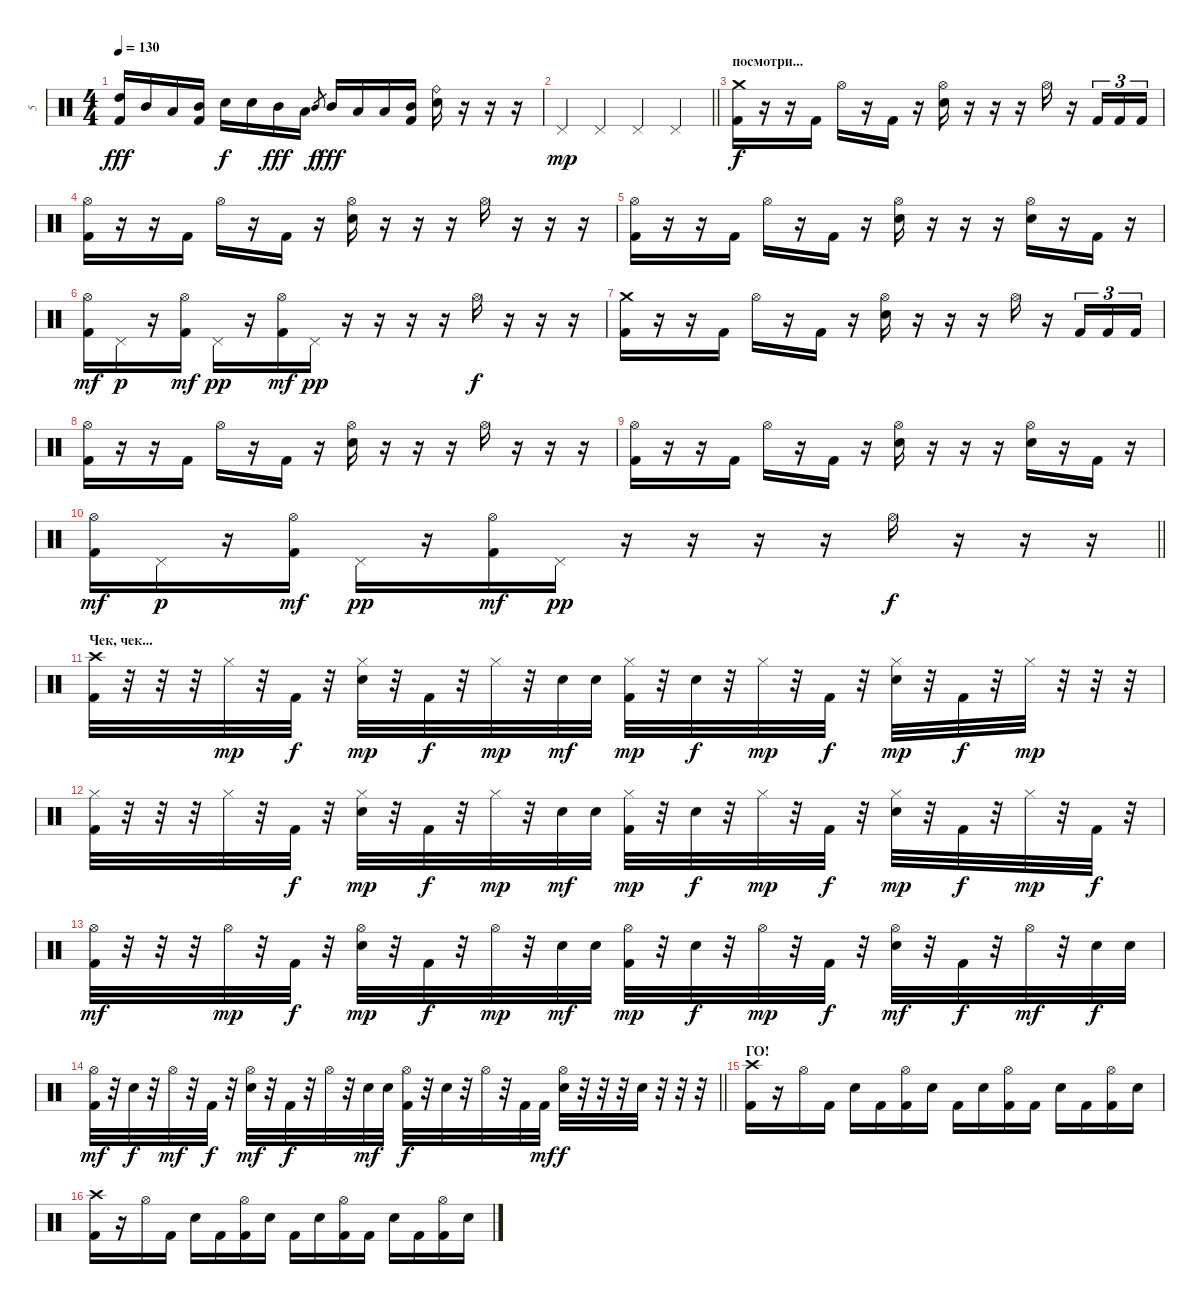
\track ("5" "5") {instrument percussion}
\staff {score}
\articulation defaults
\ts (4 4)
\tempo 130
\clef neutral
\ks c
("High Tom (hit)" "Kick (hit) 2").16{dy fff} "Mid Tom (hit)".16 "Low Tom (hit)".16 ("Mid Tom (hit)" "Kick (hit) 2").16 "Electric Snare (hit)".16{dy f} "Electric Snare (hit)".16 "Mid Tom (hit)".16{dy fff} "Low Tom (hit)".16 "Mid Tom (hit)".8{gr dy f} "Mid Tom (hit)".16{dy fff} "Low Tom (hit)".16 "Low Tom (hit)".16 ("Mid Tom (hit)" "Kick (hit) 2").16 ("Ride (bell)" "Electric Snare (hit)").16 r.16 r.16 r.16 |
\barLineRight lightlight "Pedal Hi-Hat (hit)".4{dy mp} "Pedal Hi-Hat (hit)".4 "Pedal Hi-Hat (hit)".4 "Pedal Hi-Hat (hit)".4
|
\section ("" "посмотри...")
("Crash medium (hit)" "Kick (hit) 2").16{dy f} r.16 r.16 "Kick (hit) 2".16 "Hi-Hat (open)".16 r.16 "Kick (hit) 2".16 r.16 ("Hi-Hat (open)" "Electric Snare (hit)").16 r.16 r.16 r.16 "Hi-Hat (open)".16 r.16 "Kick (hit) 2".16{tu (3 2)} "Kick (hit) 2".16{tu (3 2)} "Kick (hit) 2".16{tu (3 2)} |
("Hi-Hat (open)" "Kick (hit) 2").16 r.16 r.16 "Kick (hit) 2".16 "Hi-Hat (open)".16 r.16 "Kick (hit) 2".16 r.16 ("Hi-Hat (open)" "Electric Snare (hit)").16 r.16 r.16 r.16 "Hi-Hat (open)".16 r.16 r.16 r.16 |
("Hi-Hat (open)" "Kick (hit) 2").16 r.16 r.16 "Kick (hit) 2".16 "Hi-Hat (open)".16 r.16 "Kick (hit) 2".16 r.16 ("Hi-Hat (open)" "Electric Snare (hit)").16 r.16 r.16 r.16 ("Hi-Hat (open)" "Electric Snare (hit)").16 r.16 "Kick (hit) 2".16 r.16 |
("Hi-Hat (open)" "Kick (hit) 2").16{dy mf} "Pedal Hi-Hat (hit)".16{dy p} r.16 ("Hi-Hat (open)" "Kick (hit) 2").16{dy mf} "Pedal Hi-Hat (hit)".16{dy pp} r.16 ("Hi-Hat (open)" "Kick (hit) 2").16{dy mf} "Pedal Hi-Hat (hit)".16{dy pp} r.16 r.16 r.16 r.16 "Hi-Hat (open)".16{dy f} r.16 r.16 r.16 |
("Crash medium (hit)" "Kick (hit) 2").16 r.16 r.16 "Kick (hit) 2".16 "Hi-Hat (open)".16 r.16 "Kick (hit) 2".16 r.16 ("Hi-Hat (open)" "Electric Snare (hit)").16 r.16 r.16 r.16 "Hi-Hat (open)".16 r.16 "Kick (hit) 2".16{tu (3 2)} "Kick (hit) 2".16{tu (3 2)} "Kick (hit) 2".16{tu (3 2)} |
("Hi-Hat (open)" "Kick (hit) 2").16 r.16 r.16 "Kick (hit) 2".16 "Hi-Hat (open)".16 r.16 "Kick (hit) 2".16 r.16 ("Hi-Hat (open)" "Electric Snare (hit)").16 r.16 r.16 r.16 "Hi-Hat (open)".16 r.16 r.16 r.16 |
("Hi-Hat (open)" "Kick (hit) 2").16 r.16 r.16 "Kick (hit) 2".16 "Hi-Hat (open)".16 r.16 "Kick (hit) 2".16 r.16 ("Hi-Hat (open)" "Electric Snare (hit)").16 r.16 r.16 r.16 ("Hi-Hat (open)" "Electric Snare (hit)").16 r.16 "Kick (hit) 2".16 r.16 |
\barLineRight lightlight
("Hi-Hat (open)" "Kick (hit) 2").16{dy mf} "Pedal Hi-Hat (hit)".16{dy p} r.16 ("Hi-Hat (open)" "Kick (hit) 2").16{dy mf} "Pedal Hi-Hat (hit)".16{dy pp} r.16 ("Hi-Hat (open)" "Kick (hit) 2").16{dy mf} "Pedal Hi-Hat (hit)".16{dy pp} r.16 r.16 r.16 r.16 "Hi-Hat (open)".16{dy f} r.16 r.16 r.16 |
\section ("" "Чек, чек...")
("Crash high (hit)" "Kick (hit) 2").32 r.32 r.32 r.32 "Hi-Hat (closed)".32{dy mp} r.32 "Kick (hit) 2".32{dy f} r.32 ("Hi-Hat (closed)" "Electric Snare (hit)").32{dy mp} r.32 "Kick (hit) 2".32{dy f} r.32 "Hi-Hat (closed)".32{dy mp} r.32 "Electric Snare (hit)".32{dy mf} "Electric Snare (hit)".32 ("Hi-Hat (closed)" "Kick (hit) 2").32{dy mp} r.32 "Electric Snare (hit)".32{dy f} r.32 "Hi-Hat (closed)".32{dy mp} r.32 "Kick (hit) 2".32{dy f} r.32 ("Hi-Hat (closed)" "Electric Snare (hit)").32{dy mp} r.32 "Kick (hit) 2".32{dy f} r.32 "Hi-Hat (closed)".32{dy mp} r.32 r.32 r.32 |
("Hi-Hat (closed)" "Kick (hit) 2").32 r.32 r.32 r.32 "Hi-Hat (closed)".32 r.32 "Kick (hit) 2".32{dy f} r.32 ("Hi-Hat (closed)" "Electric Snare (hit)").32{dy mp} r.32 "Kick (hit) 2".32{dy f} r.32 "Hi-Hat (closed)".32{dy mp} r.32 "Electric Snare (hit)".32{dy mf} "Electric Snare (hit)".32 ("Hi-Hat (closed)" "Kick (hit) 2").32{dy mp} r.32 "Electric Snare (hit)".32{dy f} r.32 "Hi-Hat (closed)".32{dy mp} r.32 "Kick (hit) 2".32{dy f} r.32 ("Hi-Hat (closed)" "Electric Snare (hit)").32{dy mp} r.32 "Kick (hit) 2".32{dy f} r.32 "Hi-Hat (closed)".32{dy mp} r.32 "Kick (hit) 2".32{dy f} r.32 |
("Hi-Hat (open)" "Kick (hit) 2").32{dy mf} r.32 r.32 r.32 "Hi-Hat (open)".32{dy mp} r.32 "Kick (hit) 2".32{dy f} r.32 ("Hi-Hat (open)" "Electric Snare (hit)").32{dy mp} r.32 "Kick (hit) 2".32{dy f} r.32 "Hi-Hat (open)".32{dy mp} r.32 "Electric Snare (hit)".32{dy mf} "Electric Snare (hit)".32 ("Hi-Hat (open)" "Kick (hit) 2").32{dy mp} r.32 "Electric Snare (hit)".32{dy f} r.32 "Hi-Hat (open)".32{dy mp} r.32 "Kick (hit) 2".32{dy f} r.32 ("Hi-Hat (open)" "Electric Snare (hit)").32{dy mf} r.32 "Kick (hit) 2".32{dy f} r.32 "Hi-Hat (open)".32{dy mf} r.32 "Electric Snare (hit)".32{dy f} "Electric Snare (hit)".32 |
\barLineRight lightlight
("Hi-Hat (open)" "Kick (hit) 2").32{dy mf} r.32 "Electric Snare (hit)".32{dy f} r.32 "Hi-Hat (open)".32{dy mf} r.32 "Kick (hit) 2".32{dy f} r.32 ("Hi-Hat (open)" "Electric Snare (hit)").32{dy mf} r.32 "Kick (hit) 2".32{dy f} r.32 "Hi-Hat (open)".32 r.32 "Electric Snare (hit)".32{dy mf} "Electric Snare (hit)".32 ("Hi-Hat (open)" "Kick (hit) 2").32{dy f} r.32 "Electric Snare (hit)".32 r.32 "Hi-Hat (open)".32 r.32 "Kick (hit) 2".32 "Kick (hit) 2".32{dy mf} ("Hi-Hat (open)" "Electric Snare (hit)").32{dy f} r.32 r.32 r.32 "Electric Snare (hit)".32 r.32 r.32 r.32 |
\section ("" "ГО!")
("Crash high (hit)" "Kick (hit) 2").16 r.16 "Hi-Hat (open)".16 "Kick (hit) 2".16 "Electric Snare (hit)".16 "Kick (hit) 2".16 ("Hi-Hat (open)" "Kick (hit) 2").16 "Electric Snare (hit)".16 "Kick (hit) 2".16 "Electric Snare (hit)".16 ("Hi-Hat (open)" "Kick (hit) 2").16 "Kick (hit) 2".16 "Electric Snare (hit)".16 "Kick (hit) 2".16 ("Hi-Hat (open)" "Kick (hit) 2").16 "Electric Snare (hit)".16 |
("Crash high (hit)" "Kick (hit) 2").16 r.16 "Hi-Hat (open)".16 "Kick (hit) 2".16 "Electric Snare (hit)".16 "Kick (hit) 2".16 ("Hi-Hat (open)" "Kick (hit) 2").16 "Electric Snare (hit)".16 "Kick (hit) 2".16 "Electric Snare (hit)".16 ("Hi-Hat (open)" "Kick (hit) 2").16 "Kick (hit) 2".16 "Electric Snare (hit)".16 "Kick (hit) 2".16 ("Hi-Hat (open)" "Kick (hit) 2").16 "Electric Snare (hit)".16
